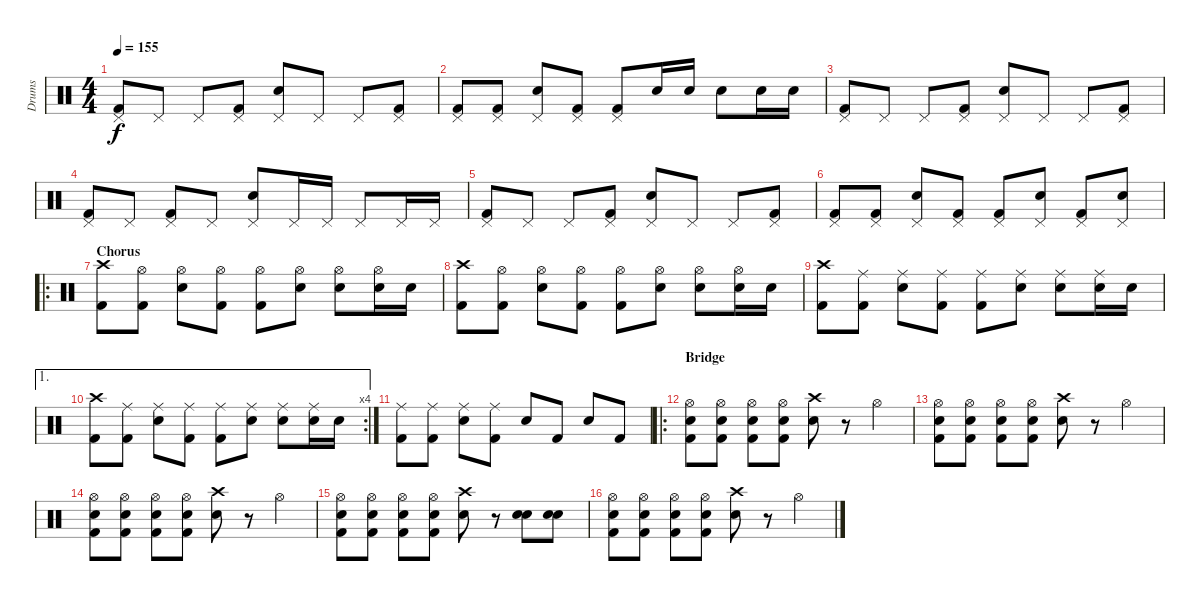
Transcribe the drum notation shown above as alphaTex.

\track ("Drums" "Drums") {instrument percussion}
\staff {score}
\articulation defaults
\ts (4 4)
\tempo 155
\clef neutral
\ks c
("Pedal Hi-Hat (hit)" "Kick (hit) 2").8{dy f} "Pedal Hi-Hat (hit)".8 "Pedal Hi-Hat (hit)".8 ("Pedal Hi-Hat (hit)" "Kick (hit) 2").8 ("Pedal Hi-Hat (hit)" "Snare (hit) 2").8 "Pedal Hi-Hat (hit)".8 "Pedal Hi-Hat (hit)".8 ("Pedal Hi-Hat (hit)" "Kick (hit) 2").8 |
("Pedal Hi-Hat (hit)" "Kick (hit) 2").8 ("Pedal Hi-Hat (hit)" "Kick (hit) 2").8 ("Pedal Hi-Hat (hit)" "Snare (hit) 2").8 ("Pedal Hi-Hat (hit)" "Kick (hit) 2").8 ("Pedal Hi-Hat (hit)" "Kick (hit) 2").8 "Snare (hit) 2".16 "Snare (hit) 2".16 "Snare (hit) 2".8 "Snare (hit) 2".16 "Snare (hit) 2".16 |
("Pedal Hi-Hat (hit)" "Kick (hit) 2").8 "Pedal Hi-Hat (hit)".8 "Pedal Hi-Hat (hit)".8 ("Pedal Hi-Hat (hit)" "Kick (hit) 2").8 ("Pedal Hi-Hat (hit)" "Snare (hit) 2").8 "Pedal Hi-Hat (hit)".8 "Pedal Hi-Hat (hit)".8 ("Pedal Hi-Hat (hit)" "Kick (hit) 2").8 |
("Pedal Hi-Hat (hit)" "Kick (hit) 2").8 "Pedal Hi-Hat (hit)".8 ("Pedal Hi-Hat (hit)" "Kick (hit) 2").8 "Pedal Hi-Hat (hit)".8 ("Pedal Hi-Hat (hit)" "Snare (hit) 2").8 "Pedal Hi-Hat (hit)".16 "Pedal Hi-Hat (hit)".16 "Pedal Hi-Hat (hit)".8 "Pedal Hi-Hat (hit)".16 "Pedal Hi-Hat (hit)".16 |
("Pedal Hi-Hat (hit)" "Kick (hit) 2").8 "Pedal Hi-Hat (hit)".8 "Pedal Hi-Hat (hit)".8 ("Pedal Hi-Hat (hit)" "Kick (hit) 2").8 ("Pedal Hi-Hat (hit)" "Snare (hit) 2").8 "Pedal Hi-Hat (hit)".8 "Pedal Hi-Hat (hit)".8 ("Pedal Hi-Hat (hit)" "Kick (hit) 2").8 |
("Pedal Hi-Hat (hit)" "Kick (hit) 2").8 ("Pedal Hi-Hat (hit)" "Kick (hit) 2").8 ("Pedal Hi-Hat (hit)" "Snare (hit) 2").8 ("Pedal Hi-Hat (hit)" "Kick (hit) 2").8 ("Pedal Hi-Hat (hit)" "Kick (hit) 2").8 ("Pedal Hi-Hat (hit)" "Snare (hit) 2").8 ("Pedal Hi-Hat (hit)" "Kick (hit) 2").8 ("Pedal Hi-Hat (hit)" "Snare (hit) 2").8 |
\ro
\section ("" "Chorus")
("Crash high (hit)" "Kick (hit) 2").8 ("Hi-Hat (open)" "Kick (hit) 2").8 ("Hi-Hat (open)" "Snare (hit) 2").8 ("Hi-Hat (open)" "Kick (hit) 2").8 ("Hi-Hat (open)" "Kick (hit) 2").8 ("Hi-Hat (open)" "Snare (hit) 2").8 ("Hi-Hat (open)" "Snare (hit) 2").8 ("Hi-Hat (open)" "Snare (hit) 2").16 "Snare (hit) 2".16 |
("Crash high (hit)" "Kick (hit) 2").8 ("Hi-Hat (open)" "Kick (hit) 2").8 ("Hi-Hat (open)" "Snare (hit) 2").8 ("Hi-Hat (open)" "Kick (hit) 2").8 ("Hi-Hat (open)" "Kick (hit) 2").8 ("Hi-Hat (open)" "Snare (hit) 2").8 ("Hi-Hat (open)" "Snare (hit) 2").8 ("Hi-Hat (open)" "Snare (hit) 2").16 "Snare (hit) 2".16 |
("Crash high (hit)" "Kick (hit) 2").8 ("Ride (middle)" "Kick (hit) 2").8 ("Ride (middle)" "Snare (hit) 2").8 ("Ride (middle)" "Kick (hit) 2").8 ("Ride (middle)" "Kick (hit) 2").8 ("Ride (middle)" "Snare (hit) 2").8 ("Ride (middle)" "Snare (hit) 2").8 ("Ride (middle)" "Snare (hit) 2").16 "Snare (hit) 2".16 |
\ae 1
\rc 4
("Crash high (hit)" "Kick (hit) 2").8 ("Ride (middle)" "Kick (hit) 2").8 ("Ride (middle)" "Snare (hit) 2").8 ("Ride (middle)" "Kick (hit) 2").8 ("Ride (middle)" "Kick (hit) 2").8 ("Ride (middle)" "Snare (hit) 2").8 ("Ride (middle)" "Snare (hit) 2").8 ("Ride (middle)" "Snare (hit) 2").16 "Snare (hit) 2".16 |
("Ride (middle)" "Kick (hit) 2").8 ("Ride (middle)" "Kick (hit) 2").8 ("Ride (middle)" "Snare (hit) 2").8 ("Ride (middle)" "Kick (hit) 2").8 "Snare (hit) 2".8 "Kick (hit) 2".8 "Snare (hit) 2".8 "Kick (hit) 2".8 |
\ro
\section ("" "Bridge")
("Hi-Hat (open)" "Snare (hit) 2" "Kick (hit) 2").8 ("Hi-Hat (open)" "Snare (hit) 2" "Kick (hit) 2").8 ("Hi-Hat (open)" "Snare (hit) 2" "Kick (hit) 2").8 ("Hi-Hat (open)" "Snare (hit) 2" "Kick (hit) 2").8 ("Crash high (hit)" "Snare (hit) 2").8 r.8 "Hi-Hat (open)".4 |
("Hi-Hat (open)" "Snare (hit) 2" "Kick (hit) 2").8 ("Hi-Hat (open)" "Snare (hit) 2" "Kick (hit) 2").8 ("Hi-Hat (open)" "Snare (hit) 2" "Kick (hit) 2").8 ("Hi-Hat (open)" "Snare (hit) 2" "Kick (hit) 2").8 ("Crash high (hit)" "Snare (hit) 2").8 r.8 "Hi-Hat (open)".4 |
("Hi-Hat (open)" "Snare (hit) 2" "Kick (hit) 2").8 ("Hi-Hat (open)" "Snare (hit) 2" "Kick (hit) 2").8 ("Hi-Hat (open)" "Snare (hit) 2" "Kick (hit) 2").8 ("Hi-Hat (open)" "Snare (hit) 2" "Kick (hit) 2").8 ("Crash high (hit)" "Snare (hit) 2").8 r.8 "Hi-Hat (open)".4 |
("Hi-Hat (open)" "Snare (hit) 2" "Kick (hit) 2").8 ("Hi-Hat (open)" "Snare (hit) 2" "Kick (hit) 2").8 ("Hi-Hat (open)" "Snare (hit) 2" "Kick (hit) 2").8 ("Hi-Hat (open)" "Snare (hit) 2" "Kick (hit) 2").8 ("Crash high (hit)" "Snare (hit) 2").8 r.8 ("Snare (hit) 2" "Snare (hit) 2").8 ("Snare (hit) 2" "Snare (hit) 2").8 |
("Hi-Hat (open)" "Snare (hit) 2" "Kick (hit) 2").8 ("Hi-Hat (open)" "Snare (hit) 2" "Kick (hit) 2").8 ("Hi-Hat (open)" "Snare (hit) 2" "Kick (hit) 2").8 ("Hi-Hat (open)" "Snare (hit) 2" "Kick (hit) 2").8 ("Crash high (hit)" "Snare (hit) 2").8 r.8 "Hi-Hat (open)".4
